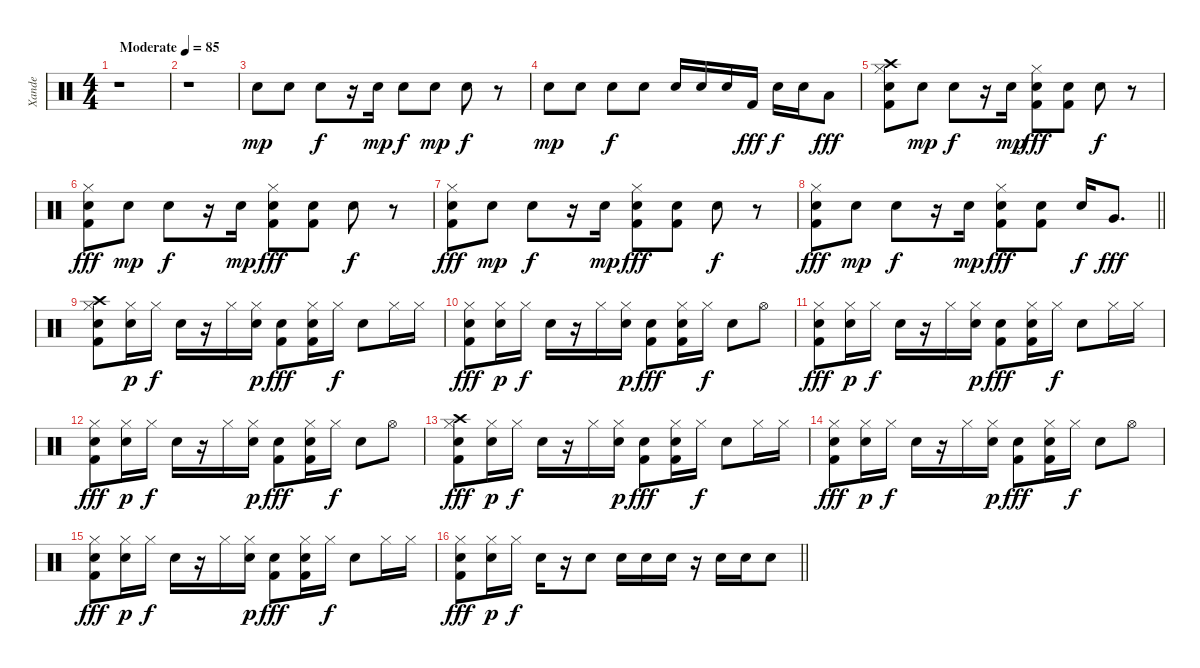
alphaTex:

\track ("Xande" "Xande") {instrument percussion}
\staff {score}
\articulation defaults
\ts (4 4)
\tempo (85 "Moderate")
\clef neutral
\ks c
r.1{dy mp} |
r.1 |
"Snare (hit) 2".8 "Snare (hit) 2".8 "Electric Snare (hit)".8{dy f} r.16 "Snare (hit) 2".16{dy mp} "Snare (hit) 2".8{dy f} "Snare (hit) 2".8{dy mp} "Electric Snare (hit)".8{dy f} r.8 |
"Snare (hit) 2".8{dy mp} "Snare (hit) 2".8 "Electric Snare (hit)".8{dy f} "Snare (hit) 2".8 "Snare (hit) 2".16 "Snare (hit) 2".16 "Snare (hit) 2".16 "Kick (hit) 2".16{dy fff} "Snare (hit) 2".16{dy f} "Snare (hit) 2".16 "Low Tom (hit)".8{dy fff} |
("Crash high (hit)" "Hi-Hat (closed)" "Snare (hit) 2" "Kick (hit) 2").8 "Snare (hit) 2".8{dy mp} "Electric Snare (hit)".8{dy f} r.16 "Snare (hit) 2".16{dy mp} ("Hi-Hat (closed)" "Snare (hit) 2" "Kick (hit) 2").8{dy fff} ("Snare (hit) 2" "Kick (hit) 2").8 "Electric Snare (hit)".8{dy f} r.8 |
("Hi-Hat (closed)" "Snare (hit) 2" "Kick (hit) 2").8{dy fff} "Snare (hit) 2".8{dy mp} "Electric Snare (hit)".8{dy f} r.16 "Snare (hit) 2".16{dy mp} ("Hi-Hat (closed)" "Snare (hit) 2" "Kick (hit) 2").8{dy fff} ("Snare (hit) 2" "Kick (hit) 2").8 "Electric Snare (hit)".8{dy f} r.8 |
("Hi-Hat (closed)" "Snare (hit) 2" "Kick (hit) 2").8{dy fff} "Snare (hit) 2".8{dy mp} "Electric Snare (hit)".8{dy f} r.16 "Snare (hit) 2".16{dy mp} ("Hi-Hat (closed)" "Snare (hit) 2" "Kick (hit) 2").8{dy fff} ("Snare (hit) 2" "Kick (hit) 2").8 "Electric Snare (hit)".8{dy f} r.8 |
\barLineRight lightlight
("Hi-Hat (closed)" "Snare (hit) 2" "Kick (hit) 2").8{dy fff} "Snare (hit) 2".8{dy mp} "Electric Snare (hit)".8{dy f} r.16 "Snare (hit) 2".16{dy mp} ("Hi-Hat (closed)" "Snare (hit) 2" "Kick (hit) 2").8{dy fff} ("Snare (hit) 2" "Kick (hit) 2").8 "Electric Snare (hit)".16{dy f} "Very Low Tom (hit)".8{d dy fff} |
("Crash high (hit)" "Hi-Hat (closed)" "Snare (hit) 2" "Kick (hit) 2").8 ("Hi-Hat (closed)" "Snare (hit) 2").16{dy p} "Hi-Hat (closed)".16{dy f} "Electric Snare (hit)".16 r.16 "Hi-Hat (closed)".16 ("Hi-Hat (closed)" "Snare (hit) 2").16{dy p} ("Snare (hit) 2" "Kick (hit) 2").8{dy fff} ("Hi-Hat (closed)" "Snare (hit) 2" "Kick (hit) 2").16 "Hi-Hat (closed)".16{dy f} "Electric Snare (hit)".8 "Hi-Hat (closed)".16 "Hi-Hat (closed)".16 |
("Hi-Hat (closed)" "Snare (hit) 2" "Kick (hit) 2").8{dy fff} ("Hi-Hat (closed)" "Snare (hit) 2").16{dy p} "Hi-Hat (closed)".16{dy f} "Electric Snare (hit)".16 r.16 "Hi-Hat (closed)".16 ("Hi-Hat (closed)" "Snare (hit) 2").16{dy p} ("Snare (hit) 2" "Kick (hit) 2").8{dy fff} ("Hi-Hat (closed)" "Snare (hit) 2" "Kick (hit) 2").16 "Hi-Hat (closed)".16{dy f} "Electric Snare (hit)".8 "Hi-Hat (open)".8 |
("Hi-Hat (closed)" "Snare (hit) 2" "Kick (hit) 2").8{dy fff} ("Hi-Hat (closed)" "Snare (hit) 2").16{dy p} "Hi-Hat (closed)".16{dy f} "Electric Snare (hit)".16 r.16 "Hi-Hat (closed)".16 ("Hi-Hat (closed)" "Snare (hit) 2").16{dy p} ("Snare (hit) 2" "Kick (hit) 2").8{dy fff} ("Hi-Hat (closed)" "Snare (hit) 2" "Kick (hit) 2").16 "Hi-Hat (closed)".16{dy f} "Electric Snare (hit)".8 "Hi-Hat (closed)".16 "Hi-Hat (closed)".16 |
("Hi-Hat (closed)" "Snare (hit) 2" "Kick (hit) 2").8{dy fff} ("Hi-Hat (closed)" "Snare (hit) 2").16{dy p} "Hi-Hat (closed)".16{dy f} "Electric Snare (hit)".16 r.16 "Hi-Hat (closed)".16 ("Hi-Hat (closed)" "Snare (hit) 2").16{dy p} ("Snare (hit) 2" "Kick (hit) 2").8{dy fff} ("Hi-Hat (closed)" "Snare (hit) 2" "Kick (hit) 2").16 "Hi-Hat (closed)".16{dy f} "Electric Snare (hit)".8 "Hi-Hat (open)".8 |
("Crash high (hit)" "Hi-Hat (closed)" "Snare (hit) 2" "Kick (hit) 2").8{dy fff} ("Hi-Hat (closed)" "Snare (hit) 2").16{dy p} "Hi-Hat (closed)".16{dy f} "Electric Snare (hit)".16 r.16 "Hi-Hat (closed)".16 ("Hi-Hat (closed)" "Snare (hit) 2").16{dy p} ("Snare (hit) 2" "Kick (hit) 2").8{dy fff} ("Hi-Hat (closed)" "Snare (hit) 2" "Kick (hit) 2").16 "Hi-Hat (closed)".16{dy f} "Electric Snare (hit)".8 "Hi-Hat (closed)".16 "Hi-Hat (closed)".16 |
("Hi-Hat (closed)" "Snare (hit) 2" "Kick (hit) 2").8{dy fff} ("Hi-Hat (closed)" "Snare (hit) 2").16{dy p} "Hi-Hat (closed)".16{dy f} "Electric Snare (hit)".16 r.16 "Hi-Hat (closed)".16 ("Hi-Hat (closed)" "Snare (hit) 2").16{dy p} ("Snare (hit) 2" "Kick (hit) 2").8{dy fff} ("Hi-Hat (closed)" "Snare (hit) 2" "Kick (hit) 2").16 "Hi-Hat (closed)".16{dy f} "Electric Snare (hit)".8 "Hi-Hat (open)".8 |
("Hi-Hat (closed)" "Snare (hit) 2" "Kick (hit) 2").8{dy fff} ("Hi-Hat (closed)" "Snare (hit) 2").16{dy p} "Hi-Hat (closed)".16{dy f} "Electric Snare (hit)".16 r.16 "Hi-Hat (closed)".16 ("Hi-Hat (closed)" "Snare (hit) 2").16{dy p} ("Snare (hit) 2" "Kick (hit) 2").8{dy fff} ("Hi-Hat (closed)" "Snare (hit) 2" "Kick (hit) 2").16 "Hi-Hat (closed)".16{dy f} "Electric Snare (hit)".8 "Hi-Hat (closed)".16 "Hi-Hat (closed)".16 |
\barLineRight lightlight
("Hi-Hat (closed)" "Snare (hit) 2" "Kick (hit) 2").8{dy fff} ("Hi-Hat (closed)" "Snare (hit) 2").16{dy p} "Hi-Hat (closed)".16{dy f} "Electric Snare (hit)".16 r.16 "Snare (hit) 2".8 "Snare (hit) 2".16 "Snare (hit) 2".16 "Snare (hit) 2".16 r.16 "Snare (hit) 2".16 "Snare (hit) 2".16 "Snare (hit) 2".8
